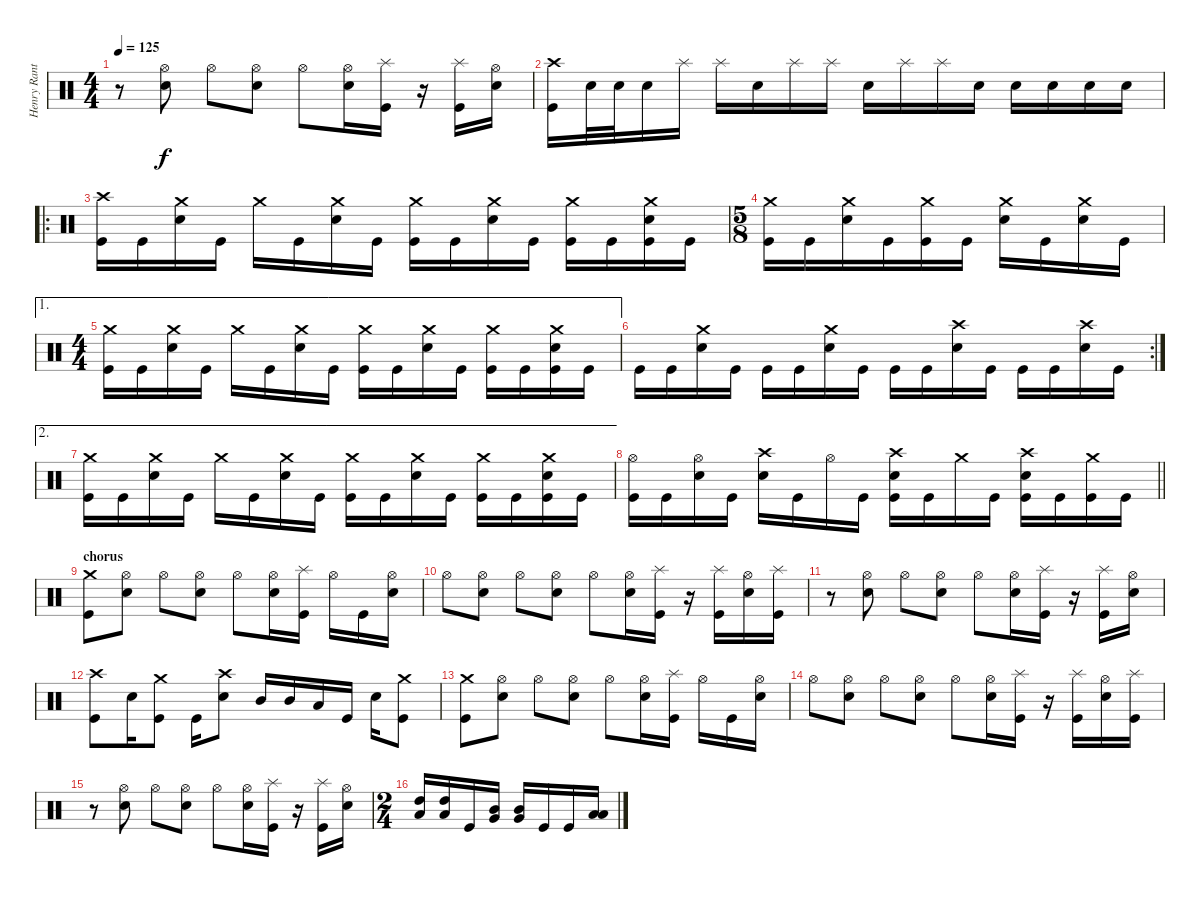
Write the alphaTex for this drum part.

\track ("Henry Ranta" "Henry Rant") {instrument percussion}
\staff {score}
\articulation defaults
\ts (4 4)
\tempo 125
\clef neutral
\ks c
r.8{dy f} ("Hi-Hat (open)" "Electric Snare (hit)").8 "Hi-Hat (open)".8 ("Hi-Hat (open)" "Electric Snare (hit)").8 "Hi-Hat (open)".8 ("Hi-Hat (open)" "Electric Snare (hit)").16 ("Splash (hit)" "Kick (hit)").16 r.16 ("Splash (hit)" "Kick (hit)").16 ("Hi-Hat (open)" "Electric Snare (hit)").16 |
("Crash high (hit)" "Kick (hit)").16 "Electric Snare (hit)".32 "Electric Snare (hit)".32 "Electric Snare (hit)".16 "Splash (hit)".16 "Splash (hit)".16 "Electric Snare (hit)".16 "Splash (hit)".16 "Splash (hit)".16 "Electric Snare (hit)".16 "Splash (hit)".16 "Splash (hit)".16 "Electric Snare (hit)".16 "Electric Snare (hit)".16 "Electric Snare (hit)".16 "Electric Snare (hit)".16 "Electric Snare (hit)".16 |
\ro
("Crash high (hit)" "Kick (hit)").16 "Kick (hit)".16 ("Crash medium (hit)" "Electric Snare (hit)").16 "Kick (hit)".16 "Crash medium (hit)".16 "Kick (hit)".16 ("Crash medium (hit)" "Electric Snare (hit)").16 "Kick (hit)".16 ("Crash medium (hit)" "Kick (hit)").16 "Kick (hit)".16 ("Crash medium (hit)" "Electric Snare (hit)").16 "Kick (hit)".16 ("Crash medium (hit)" "Kick (hit)").16 "Kick (hit)".16 ("Crash medium (hit)" "Electric Snare (hit)" "Kick (hit)").16 "Kick (hit)".16 |
\ts (5 8)
("Crash medium (hit)" "Kick (hit)").16 "Kick (hit)".16 ("Crash medium (hit)" "Electric Snare (hit)").16 "Kick (hit)".16 ("Crash medium (hit)" "Kick (hit)").16 "Kick (hit)".16 ("Crash medium (hit)" "Electric Snare (hit)").16 "Kick (hit)".16 ("Crash medium (hit)" "Electric Snare (hit)").16 "Kick (hit)".16 |
\ae 1
\ts (4 4)
("Crash medium (hit)" "Kick (hit)").16 "Kick (hit)".16 ("Crash medium (hit)" "Electric Snare (hit)").16 "Kick (hit)".16 "Crash medium (hit)".16 "Kick (hit)".16 ("Crash medium (hit)" "Electric Snare (hit)").16 "Kick (hit)".16 ("Crash medium (hit)" "Kick (hit)").16 "Kick (hit)".16 ("Crash medium (hit)" "Electric Snare (hit)").16 "Kick (hit)".16 ("Crash medium (hit)" "Kick (hit)").16 "Kick (hit)".16 ("Crash medium (hit)" "Electric Snare (hit)" "Kick (hit)").16 "Kick (hit)".16 |
\rc 2 "Kick (hit)".16 "Kick (hit)".16
("Crash medium (hit)" "Electric Snare (hit)").16 "Kick (hit)".16 "Kick (hit)".16 "Kick (hit)".16 ("Crash medium (hit)" "Electric Snare (hit)").16 "Kick (hit)".16 "Kick (hit)".16 "Kick (hit)".16 ("Crash high (hit)" "Electric Snare (hit)").16 "Kick (hit)".16 "Kick (hit)".16 "Kick (hit)".16 ("Crash high (hit)" "Electric Snare (hit)").16 "Kick (hit)".16 |
\ae 2
("Crash medium (hit)" "Kick (hit)").16 "Kick (hit)".16 ("Crash medium (hit)" "Electric Snare (hit)").16 "Kick (hit)".16 "Crash medium (hit)".16 "Kick (hit)".16 ("Crash medium (hit)" "Electric Snare (hit)").16 "Kick (hit)".16 ("Crash medium (hit)" "Kick (hit)").16 "Kick (hit)".16 ("Crash medium (hit)" "Electric Snare (hit)").16 "Kick (hit)".16 ("Crash medium (hit)" "Kick (hit)").16 "Kick (hit)".16 ("Crash medium (hit)" "Electric Snare (hit)" "Kick (hit)").16 "Kick (hit)".16 |
\barLineRight lightlight
("Hi-Hat (open)" "Kick (hit)").16 "Kick (hit)".16 ("Hi-Hat (open)" "Electric Snare (hit)").16 "Kick (hit)".16 ("Crash high (hit)" "Electric Snare (hit)").16 "Kick (hit)".16 "Hi-Hat (open)".16 "Kick (hit)".16 ("Crash high (hit)" "Electric Snare (hit)" "Kick (hit)").16 "Kick (hit)".16 "Crash medium (hit)".16 "Kick (hit)".16 ("Crash high (hit)" "Electric Snare (hit)" "Kick (hit)").16 "Kick (hit)".16 ("Crash medium (hit)" "Kick (hit)").16 "Kick (hit)".16 |
\section ("" "chorus")
("Crash medium (hit)" "Kick (hit)").8 ("Hi-Hat (open)" "Electric Snare (hit)").8 "Hi-Hat (open)".8 ("Hi-Hat (open)" "Electric Snare (hit)").8 "Hi-Hat (open)".8 ("Hi-Hat (open)" "Electric Snare (hit)").16 ("Splash (hit)" "Kick (hit)").16 "Hi-Hat (open)".16 "Kick (hit)".16 ("Hi-Hat (open)" "Electric Snare (hit)").16 |
"Hi-Hat (open)".8 ("Hi-Hat (open)" "Electric Snare (hit)").8 "Hi-Hat (open)".8 ("Hi-Hat (open)" "Electric Snare (hit)").8 "Hi-Hat (open)".8 ("Hi-Hat (open)" "Electric Snare (hit)").16 ("Splash (hit)" "Kick (hit)").16 r.16 ("Splash (hit)" "Kick (hit)").16 ("Hi-Hat (open)" "Electric Snare (hit)").16 ("Splash (hit)" "Kick (hit)").16 |
r.8 ("Hi-Hat (open)" "Electric Snare (hit)").8 "Hi-Hat (open)".8 ("Hi-Hat (open)" "Electric Snare (hit)").8 "Hi-Hat (open)".8 ("Hi-Hat (open)" "Electric Snare (hit)").16 ("Splash (hit)" "Kick (hit)").16 r.16 ("Splash (hit)" "Kick (hit)").16 ("Hi-Hat (open)" "Electric Snare (hit)").16 |
("Crash high (hit)" "Kick (hit)").8 "Electric Snare (hit)".16 ("Crash medium (hit)" "Kick (hit)").8 "Kick (hit)".16 ("Crash high (hit)" "Electric Snare (hit)").8 "Mid Tom (hit)".16 "Mid Tom (hit)".16 "Low Tom (hit)".16 "Kick (hit)".16 "Electric Snare (hit)".16 ("Crash medium (hit)" "Kick (hit)").8 |
("Crash medium (hit)" "Kick (hit)").8 ("Hi-Hat (open)" "Electric Snare (hit)").8 "Hi-Hat (open)".8 ("Hi-Hat (open)" "Electric Snare (hit)").8 "Hi-Hat (open)".8 ("Hi-Hat (open)" "Electric Snare (hit)").16 ("Splash (hit)" "Kick (hit)").16 "Hi-Hat (open)".16 "Kick (hit)".16 ("Hi-Hat (open)" "Electric Snare (hit)").16 |
"Hi-Hat (open)".8 ("Hi-Hat (open)" "Electric Snare (hit)").8 "Hi-Hat (open)".8 ("Hi-Hat (open)" "Electric Snare (hit)").8 "Hi-Hat (open)".8 ("Hi-Hat (open)" "Electric Snare (hit)").16 ("Splash (hit)" "Kick (hit)").16 r.16 ("Splash (hit)" "Kick (hit)").16 ("Hi-Hat (open)" "Electric Snare (hit)").16 ("Splash (hit)" "Kick (hit)").16 |
r.8 ("Hi-Hat (open)" "Electric Snare (hit)").8 "Hi-Hat (open)".8 ("Hi-Hat (open)" "Electric Snare (hit)").8 "Hi-Hat (open)".8 ("Hi-Hat (open)" "Electric Snare (hit)").16 ("Splash (hit)" "Kick (hit)").16 r.16 ("Splash (hit)" "Kick (hit)").16 ("Hi-Hat (open)" "Electric Snare (hit)").16 |
\ts (2 4)
("High Tom (hit)" "Low Tom (hit)").16 ("High Tom (hit)" "Low Tom (hit)").16 "Kick (hit)".16 ("Mid Tom (hit)" "Very Low Tom (hit)").16 ("Mid Tom (hit)" "Very Low Tom (hit)").16 "Kick (hit)".16 "Kick (hit)".16 ("Low Tom (hit)" "Low Floor Tom (hit)").16
